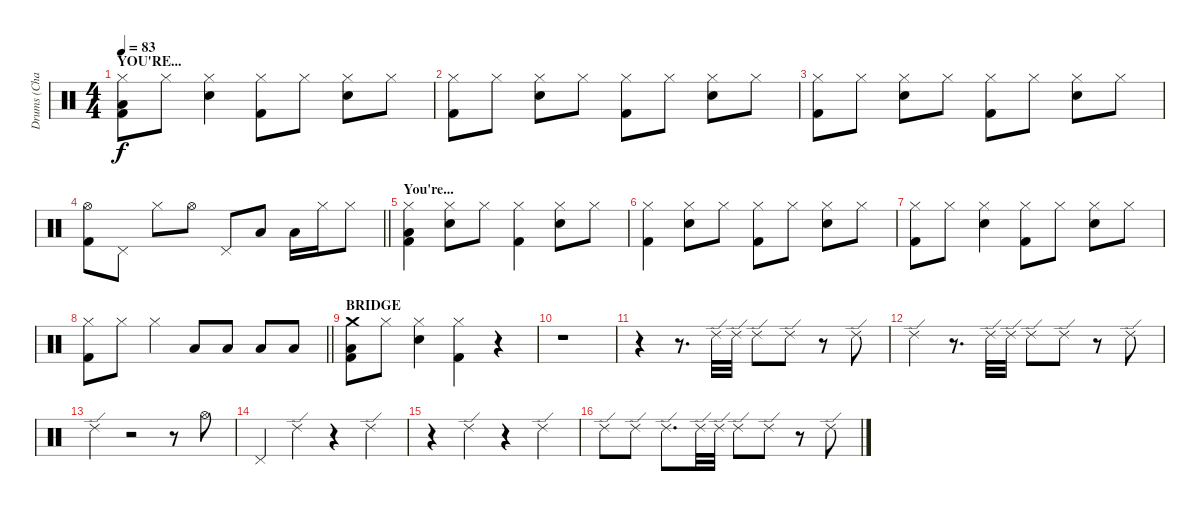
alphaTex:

\track ("Drums (Charlie)" "Drums (Cha") {instrument percussion}
\staff {score}
\articulation defaults
\ts (4 4)
\section ("" "YOU'RE...")
\tempo 83
\clef neutral
\ks c
("Hi-Hat (closed)" "Low Floor Tom (hit)" "Kick (hit) 2").8{dy f} "Hi-Hat (closed)".8 ("Hi-Hat (closed)" "Snare (hit) 2").4 ("Hi-Hat (closed)" "Kick (hit) 2").8 "Hi-Hat (closed)".8 ("Hi-Hat (closed)" "Snare (hit) 2").8 "Hi-Hat (closed)".8 |
("Hi-Hat (closed)" "Kick (hit) 2").8 "Hi-Hat (closed)".8 ("Hi-Hat (closed)" "Snare (hit) 2").8 "Hi-Hat (closed)".8 ("Hi-Hat (closed)" "Kick (hit) 2").8 "Hi-Hat (closed)".8 ("Hi-Hat (closed)" "Snare (hit) 2").8 "Hi-Hat (closed)".8 |
("Hi-Hat (closed)" "Kick (hit) 2").8 "Hi-Hat (closed)".8 ("Hi-Hat (closed)" "Snare (hit) 2").8 "Hi-Hat (closed)".8 ("Hi-Hat (closed)" "Kick (hit) 2").8 "Hi-Hat (closed)".8 ("Hi-Hat (closed)" "Snare (hit) 2").8 "Hi-Hat (closed)".8 |
\barLineRight lightlight
("Hi-Hat (open)" "Kick (hit) 2").8 "Pedal Hi-Hat (hit)".8 "Hi-Hat (closed)".8 "Hi-Hat (open)".8 "Pedal Hi-Hat (hit)".8 "Low Tom (hit)".8 "Low Floor Tom (hit)".16 "Hi-Hat (closed)".16 "Hi-Hat (closed)".8 |
\section ("" "You're...")
("Hi-Hat (closed)" "Low Floor Tom (hit)" "Kick (hit) 2").4 ("Hi-Hat (closed)" "Snare (hit) 2").8 "Hi-Hat (closed)".8 ("Hi-Hat (closed)" "Kick (hit) 2").4 ("Hi-Hat (closed)" "Snare (hit) 2").8 "Hi-Hat (closed)".8 |
("Hi-Hat (closed)" "Kick (hit) 2").4 ("Hi-Hat (closed)" "Snare (hit) 2").8 "Hi-Hat (closed)".8 ("Hi-Hat (closed)" "Kick (hit) 2").8 "Hi-Hat (closed)".8 ("Hi-Hat (closed)" "Snare (hit) 2").8 "Hi-Hat (closed)".8 |
("Hi-Hat (closed)" "Kick (hit) 2").8 "Hi-Hat (closed)".8 ("Hi-Hat (closed)" "Snare (hit) 2").4 ("Hi-Hat (closed)" "Kick (hit) 2").8 "Hi-Hat (closed)".8 ("Hi-Hat (closed)" "Snare (hit) 2").8 "Hi-Hat (closed)".8 |
\barLineRight lightlight
("Hi-Hat (closed)" "Kick (hit) 2").8 "Hi-Hat (closed)".8 "Hi-Hat (closed)".4 "Low Tom (hit)".8 "Low Tom (hit)".8 "Low Floor Tom (hit)".8 "Low Floor Tom (hit)".8 |
\section ("" "BRIDGE")
("Crash medium (hit)" "Low Floor Tom (hit)" "Kick (hit) 2").8 "Hi-Hat (closed)".8 ("Hi-Hat (closed)" "Snare (hit) 2").4 ("Hi-Hat (closed)" "Kick (hit) 2").4 r.4 |
r.1 |
r.4 r.8{d} "Ride (edge) 2".32 "Ride (edge) 2".32 "Ride (edge) 2".8 "Ride (edge) 2".8 r.8 "Ride (edge) 2".8 |
"Ride (edge) 2".4 r.8{d} "Ride (edge) 2".32 "Ride (edge) 2".32 "Ride (edge) 2".8 "Ride (edge) 2".8 r.8 "Ride (edge) 2".8 |
"Ride (edge) 2".4 r.2 r.8 "Hi-Hat (open)".8 |
"Pedal Hi-Hat (hit)".4 "Ride (edge) 2".4 r.4 "Ride (edge) 2".4 |
r.4 "Ride (edge) 2".4 r.4 "Ride (edge) 2".4 |
"Ride (edge) 2".8 "Ride (edge) 2".8 "Ride (edge) 2".8{d} "Ride (edge) 2".32 "Ride (edge) 2".32 "Ride (edge) 2".8 "Ride (edge) 2".8 r.8 "Ride (edge) 2".8
